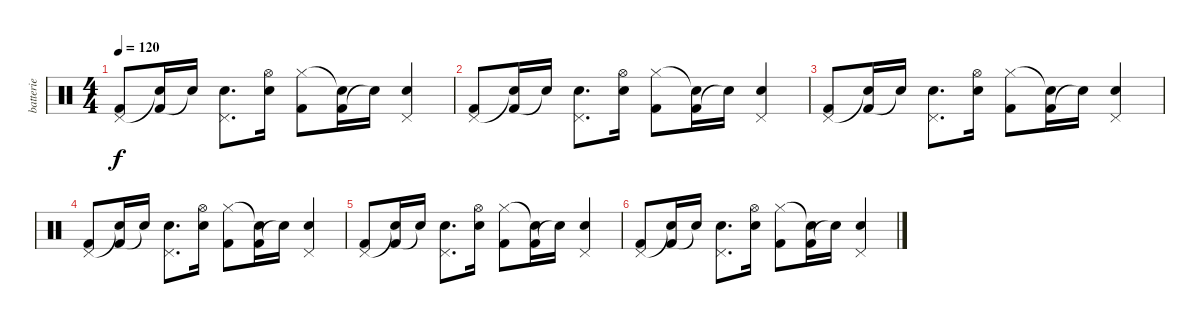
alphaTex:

\track ("batterie" "batterie") {instrument percussion}
\staff {score}
\articulation defaults
\ts (4 4)
\tempo 120
\clef neutral
\ks c
("Kick (hit) 2" "Pedal Hi-Hat (hit)").8{dy f} ("Kick (hit) 2" "Snare (hit)"{t}).16 "Snare (hit)"{t}.16 ("Snare (hit) 2" "Pedal Hi-Hat (hit)").8{d} ("Snare (hit) 2" "Hi-Hat (open)").16 ("Kick (hit) 2" "Hi-Hat (closed)").8 ("Kick (hit) 2" "Snare (hit)"{t}).16 "Snare (hit)"{t}.16 ("Snare (hit) 2" "Pedal Hi-Hat (hit)").4 |
("Kick (hit) 2" "Pedal Hi-Hat (hit)").8 ("Kick (hit) 2" "Snare (hit)"{t}).16 "Snare (hit)"{t}.16 ("Snare (hit) 2" "Pedal Hi-Hat (hit)").8{d} ("Snare (hit) 2" "Hi-Hat (open)").16 ("Kick (hit) 2" "Hi-Hat (closed)").8 ("Kick (hit) 2" "Snare (hit)"{t}).16 "Snare (hit)"{t}.16 ("Snare (hit) 2" "Pedal Hi-Hat (hit)").4 |
("Kick (hit) 2" "Pedal Hi-Hat (hit)").8 ("Kick (hit) 2" "Snare (hit)"{t}).16 "Snare (hit)"{t}.16 ("Snare (hit) 2" "Pedal Hi-Hat (hit)").8{d} ("Snare (hit) 2" "Hi-Hat (open)").16 ("Kick (hit) 2" "Hi-Hat (closed)").8 ("Kick (hit) 2" "Snare (hit)"{t}).16 "Snare (hit)"{t}.16 ("Snare (hit) 2" "Pedal Hi-Hat (hit)").4 |
("Kick (hit) 2" "Pedal Hi-Hat (hit)").8 ("Kick (hit) 2" "Snare (hit)"{t}).16 "Snare (hit)"{t}.16 ("Snare (hit) 2" "Pedal Hi-Hat (hit)").8{d} ("Snare (hit) 2" "Hi-Hat (open)").16 ("Kick (hit) 2" "Hi-Hat (closed)").8 ("Kick (hit) 2" "Snare (hit)"{t}).16 "Snare (hit)"{t}.16 ("Snare (hit) 2" "Pedal Hi-Hat (hit)").4 |
("Kick (hit) 2" "Pedal Hi-Hat (hit)").8 ("Kick (hit) 2" "Snare (hit)"{t}).16 "Snare (hit)"{t}.16 ("Snare (hit) 2" "Pedal Hi-Hat (hit)").8{d} ("Snare (hit) 2" "Hi-Hat (open)").16 ("Kick (hit) 2" "Hi-Hat (closed)").8 ("Kick (hit) 2" "Snare (hit)"{t}).16 "Snare (hit)"{t}.16 ("Snare (hit) 2" "Pedal Hi-Hat (hit)").4 |
("Kick (hit) 2" "Pedal Hi-Hat (hit)").8 ("Kick (hit) 2" "Snare (hit)"{t}).16 "Snare (hit)"{t}.16 ("Snare (hit) 2" "Pedal Hi-Hat (hit)").8{d} ("Snare (hit) 2" "Hi-Hat (open)").16 ("Kick (hit) 2" "Hi-Hat (closed)").8 ("Kick (hit) 2" "Snare (hit)"{t}).16 "Snare (hit)"{t}.16 ("Snare (hit) 2" "Pedal Hi-Hat (hit)").4
